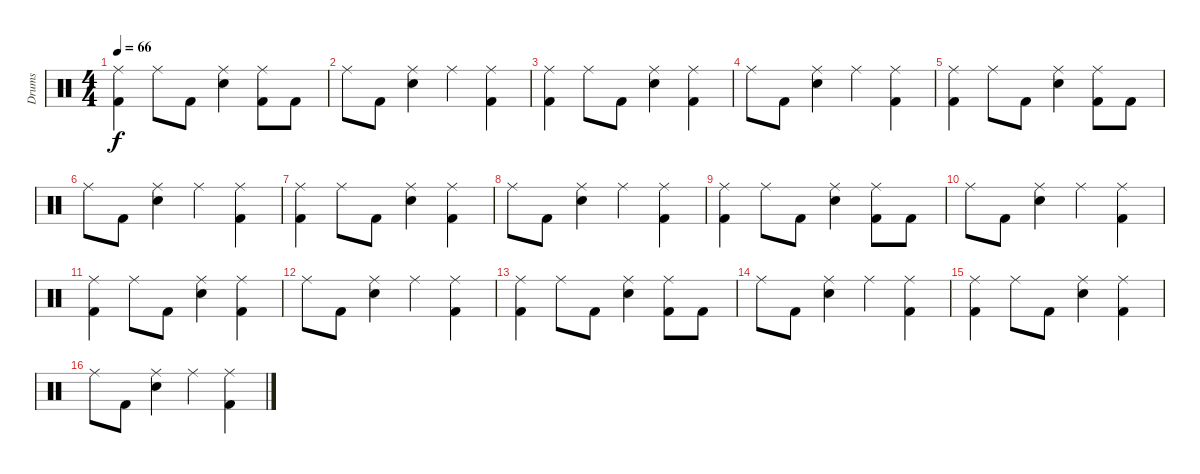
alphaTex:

\track ("Drums" "Drums") {instrument percussion}
\staff {score}
\articulation defaults
\ts (4 4)
\tempo 66
\clef neutral
\ks c
("Ride (middle)" "Kick (hit) 2").4{dy f} "Ride (middle)".8 "Kick (hit) 2".8 ("Ride (middle)" "Electric Snare (hit)").4 ("Ride (middle)" "Kick (hit) 2").8 "Kick (hit) 2".8 |
"Ride (middle)".8 "Kick (hit) 2".8 ("Ride (middle)" "Electric Snare (hit)").4 "Ride (middle)".4 ("Ride (middle)" "Kick (hit) 2").4 |
("Ride (middle)" "Kick (hit) 2").4 "Ride (middle)".8 "Kick (hit) 2".8 ("Ride (middle)" "Electric Snare (hit)").4 ("Ride (middle)" "Kick (hit) 2").4 |
"Ride (middle)".8 "Kick (hit) 2".8 ("Ride (middle)" "Electric Snare (hit)").4 "Ride (middle)".4 ("Ride (middle)" "Kick (hit) 2").4 |
("Ride (middle)" "Kick (hit) 2").4 "Ride (middle)".8 "Kick (hit) 2".8 ("Ride (middle)" "Electric Snare (hit)").4 ("Ride (middle)" "Kick (hit) 2").8 "Kick (hit) 2".8 |
"Ride (middle)".8 "Kick (hit) 2".8 ("Ride (middle)" "Electric Snare (hit)").4 "Ride (middle)".4 ("Ride (middle)" "Kick (hit) 2").4 |
("Ride (middle)" "Kick (hit) 2").4 "Ride (middle)".8 "Kick (hit) 2".8 ("Ride (middle)" "Electric Snare (hit)").4 ("Ride (middle)" "Kick (hit) 2").4 |
"Ride (middle)".8 "Kick (hit) 2".8 ("Ride (middle)" "Electric Snare (hit)").4 "Ride (middle)".4 ("Ride (middle)" "Kick (hit) 2").4 |
("Ride (middle)" "Kick (hit) 2").4 "Ride (middle)".8 "Kick (hit) 2".8 ("Ride (middle)" "Electric Snare (hit)").4 ("Ride (middle)" "Kick (hit) 2").8 "Kick (hit) 2".8 |
"Ride (middle)".8 "Kick (hit) 2".8 ("Ride (middle)" "Electric Snare (hit)").4 "Ride (middle)".4 ("Ride (middle)" "Kick (hit) 2").4 |
("Ride (middle)" "Kick (hit) 2").4 "Ride (middle)".8 "Kick (hit) 2".8 ("Ride (middle)" "Electric Snare (hit)").4 ("Ride (middle)" "Kick (hit) 2").4 |
"Ride (middle)".8 "Kick (hit) 2".8 ("Ride (middle)" "Electric Snare (hit)").4 "Ride (middle)".4 ("Ride (middle)" "Kick (hit) 2").4 |
("Ride (middle)" "Kick (hit) 2").4 "Ride (middle)".8 "Kick (hit) 2".8 ("Ride (middle)" "Electric Snare (hit)").4 ("Ride (middle)" "Kick (hit) 2").8 "Kick (hit) 2".8 |
"Ride (middle)".8 "Kick (hit) 2".8 ("Ride (middle)" "Electric Snare (hit)").4 "Ride (middle)".4 ("Ride (middle)" "Kick (hit) 2").4 |
("Ride (middle)" "Kick (hit) 2").4 "Ride (middle)".8 "Kick (hit) 2".8 ("Ride (middle)" "Electric Snare (hit)").4 ("Ride (middle)" "Kick (hit) 2").4 |
"Ride (middle)".8 "Kick (hit) 2".8 ("Ride (middle)" "Electric Snare (hit)").4 "Ride (middle)".4 ("Ride (middle)" "Kick (hit) 2").4
